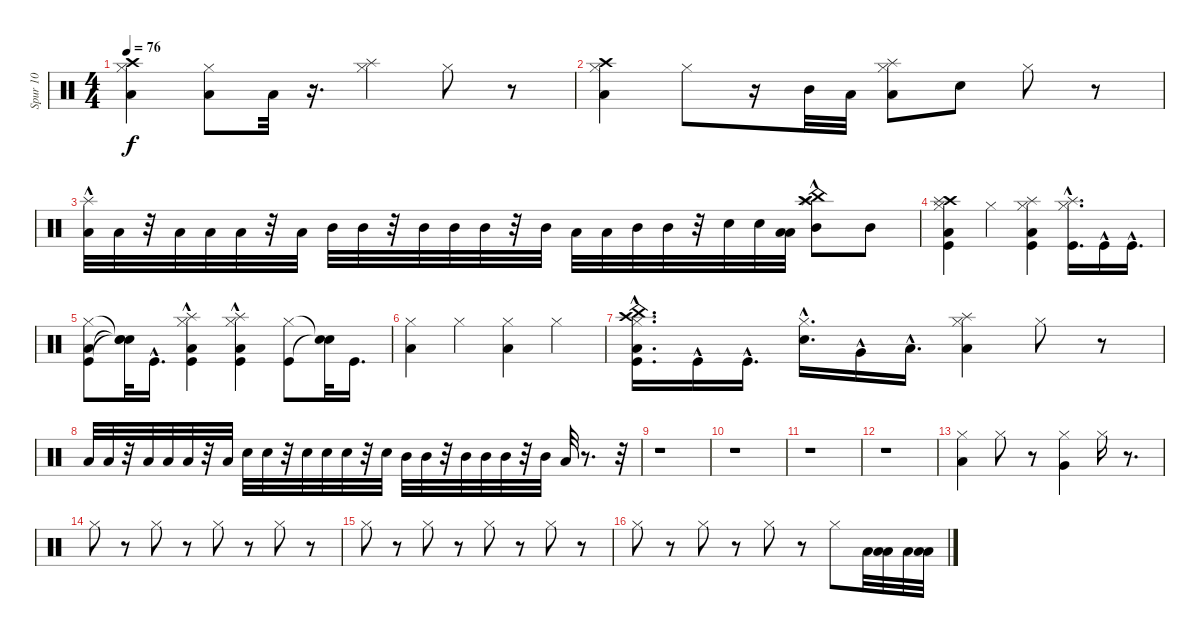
\track ("Spur 10" "Spur 10") {instrument percussion}
\staff {score}
\articulation defaults
\ts (4 4)
\tempo 76
\clef neutral
\ks c
("Hi-Hat (closed)" "Crash high (hit)" "Low Floor Tom (hit)").4{dy f} ("Hi-Hat (closed)" "Low Floor Tom (hit)").8 "Low Tom (hit)".32 r.16{d} ("Hi-Hat (closed)" "Splash (hit)").4 "Hi-Hat (closed)".8 r.8 |
("Hi-Hat (closed)" "Crash high (hit)" "Low Floor Tom (hit)").4 "Hi-Hat (closed)".8 r.16 "Mid Tom (hit)".32 "Low Floor Tom (hit)".32 ("Hi-Hat (closed)" "Splash (hit)" "Low Floor Tom (hit)").8 "Snare (hit) 2".8 "Hi-Hat (closed)".8 r.8 |
("Low Floor Tom (hit)" "Splash (hit)"{hac}).32 "Low Floor Tom (hit)".32 r.32 "Low Floor Tom (hit)".32 "Low Floor Tom (hit)".32 "Low Floor Tom (hit)".32 r.32 "Low Floor Tom (hit)".32 "Mid Tom (hit)".32 "Mid Tom (hit)".32 r.32 "Mid Tom (hit)".32 "Mid Tom (hit)".32 "Mid Tom (hit)".32 r.32 "Mid Tom (hit)".32 "Low Tom (hit)".32 "Low Tom (hit)".32 "Mid Tom (hit)".32 "Mid Tom (hit)".32 r.32 "Snare (hit) 2".32 "Snare (hit) 2".32 ("Low Floor Tom (hit)" "Low Tom (hit)").32 ("Mid Tom (hit)" "Crash high (hit)"{hac} "Splash (hit)"{hac} "China (hit)"{hac}).8 "Mid Tom (hit)".8 |
("Hi-Hat (closed)" "Low Floor Tom (hit)" "Kick (hit)" "Crash high (hit)" "Splash (hit)").4 "Hi-Hat (closed)".4 ("Hi-Hat (closed)" "Low Floor Tom (hit)" "Kick (hit)" "Splash (hit)").4 ("Hi-Hat (closed)" "Kick (hit)"{hac} "Splash (hit)"{hac}).16{d} "Kick (hit)"{hac}.16 "Kick (hit)"{hac}.16{d} |
("Hi-Hat (closed)" "Kick (hit)" "Low Floor Tom (hit)").8 ("Snare (hit)"{t} "Snare (hit)"{t} "Snare (hit)"{t}).32 "Kick (hit)"{hac}.16{d} ("Hi-Hat (closed)" "Kick (hit)"{hac} "Low Tom (hit)" "Splash (hit)"{hac}).4 ("Hi-Hat (closed)" "Kick (hit)" "Low Floor Tom (hit)" "Splash (hit)"{hac}).4 ("Hi-Hat (closed)" "Kick (hit)").8 ("Snare (hit)"{t} "Snare (hit)"{t}).32 "Kick (hit)".16{d} |
("Hi-Hat (closed)" "Low Floor Tom (hit)").4 "Hi-Hat (closed)".4 ("Hi-Hat (closed)" "Low Floor Tom (hit)").4 "Hi-Hat (closed)".4 |
("Hi-Hat (closed)" "Low Floor Tom (hit)" "Kick (hit)"{hac} "China (hit)" "Crash high (hit)").16{d} "Kick (hit)"{hac}.16 "Kick (hit)"{hac}.16{d} ("Hi-Hat (closed)" "Snare (hit) 2"{hac}).16{d} "Very Low Tom (hit)"{hac}.16 "Low Tom (hit)"{hac}.16{d} ("Hi-Hat (closed)" "Low Floor Tom (hit)" "Splash (hit)").4 "Hi-Hat (closed)".8 r.8 |
"Low Tom (hit)".32 "Low Tom (hit)".32 r.32 "Low Tom (hit)".32 "Low Tom (hit)".32 "Low Tom (hit)".32 r.32 "Low Tom (hit)".32 "Snare (hit) 2".32 "Snare (hit) 2".32 r.32 "Snare (hit) 2".32 "Snare (hit) 2".32 "Snare (hit) 2".32 r.32 "Snare (hit) 2".32 "Mid Tom (hit)".32 "Mid Tom (hit)".32 r.32 "Mid Tom (hit)".32 "Mid Tom (hit)".32 "Mid Tom (hit)".32 r.32 "Mid Tom (hit)".32 "Low Floor Tom (hit)".32 r.8{d} r.32 |
r.1 |
r.1 |
r.1 |
r.1 |
("Hi-Hat (closed)" "Low Floor Tom (hit)").4 "Hi-Hat (closed)".8 r.8 ("Hi-Hat (closed)" "Very Low Tom (hit)").4 "Hi-Hat (closed)".16 r.8{d} |
"Hi-Hat (closed)".8 r.8 "Hi-Hat (closed)".8 r.8 "Hi-Hat (closed)".8 r.8 "Hi-Hat (closed)".8 r.8 |
"Hi-Hat (closed)".8 r.8 "Hi-Hat (closed)".8 r.8 "Hi-Hat (closed)".8 r.8 "Hi-Hat (closed)".8 r.8 |
"Hi-Hat (closed)".8 r.8 "Hi-Hat (closed)".8 r.8 "Hi-Hat (closed)".8 r.8 "Hi-Hat (closed)".8 "Low Tom (hit)".32 ("Low Tom (hit)" "Low Tom (hit)").32 "Low Floor Tom (hit)".32 ("Low Floor Tom (hit)" "Low Floor Tom (hit)").32
